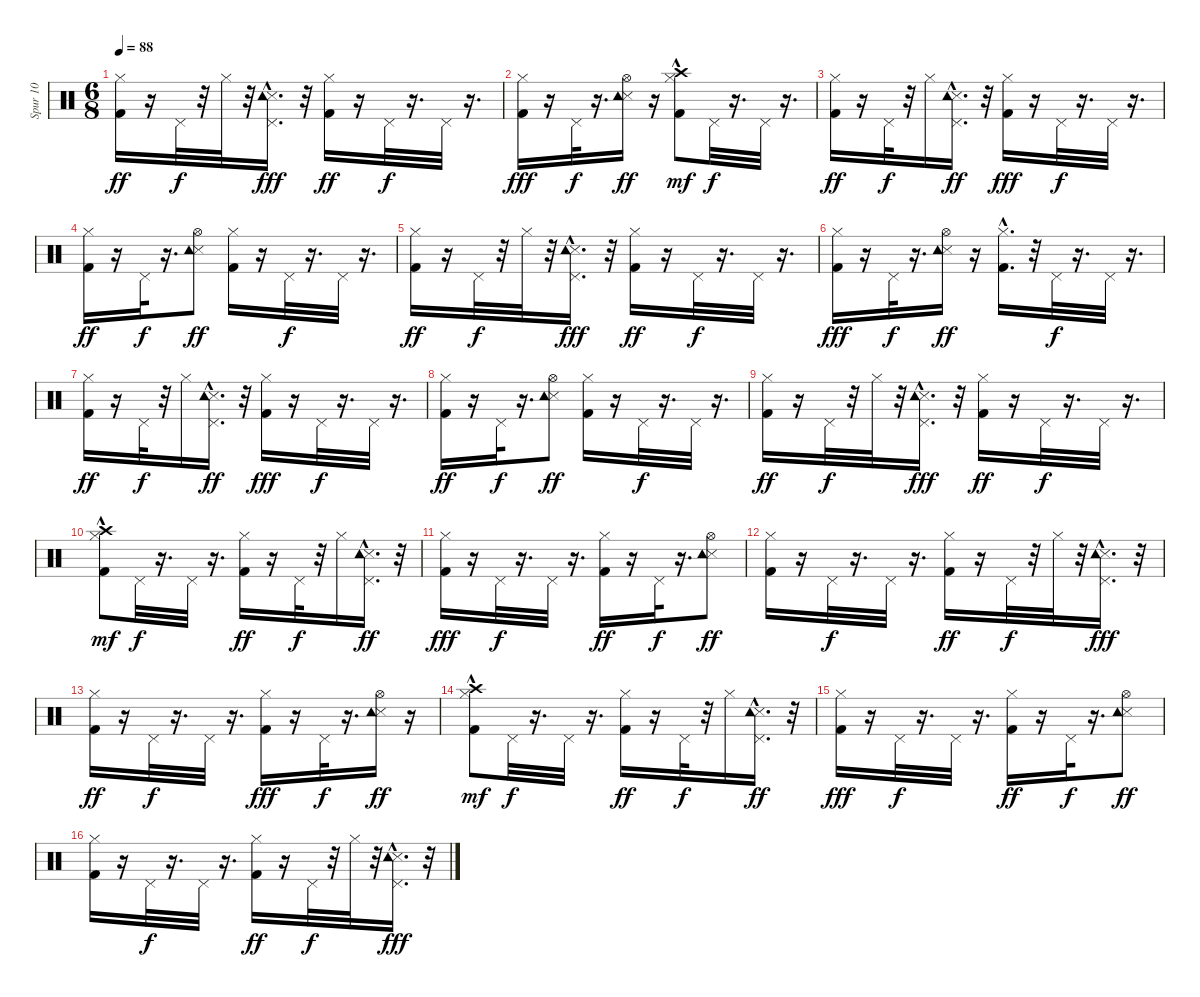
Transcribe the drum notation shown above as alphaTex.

\track ("Spur 10" "Spur 10") {instrument percussion}
\staff {score}
\articulation defaults
\ts (6 8)
\tempo 88
\clef neutral
\ks c
("Kick (hit) 2" "Hi-Hat (closed)").16{dy ff} r.16 "Pedal Hi-Hat (hit)".32{dy f} r.32 "Hi-Hat (closed)".32 r.32 ("Pedal Hi-Hat (hit)" "Snare (side stick) 3" "Tambourine (hit)"{hac}).16{d dy fff} r.32 ("Kick (hit) 2" "Hi-Hat (closed)").16{dy ff} r.16 "Pedal Hi-Hat (hit)".32{dy f} r.16{d} "Pedal Hi-Hat (hit)".32 r.16{d} |
("Kick (hit) 2" "Hi-Hat (closed)").16{dy fff} r.16 "Pedal Hi-Hat (hit)".32{dy f} r.16{d} ("Snare (side stick) 3" "Hi-Hat (open)" "Tambourine (hit)").16{dy ff} r.16 ("Kick (hit) 2"{hac} "Hi-Hat (closed)"{hac} "Crash high (hit)").8{dy mf} "Pedal Hi-Hat (hit)".32{dy f} r.16{d} "Pedal Hi-Hat (hit)".32 r.16{d} |
("Kick (hit) 2" "Hi-Hat (closed)").16{dy ff} r.16 "Pedal Hi-Hat (hit)".32{dy f} r.32 "Hi-Hat (closed)".16 ("Snare (side stick) 3" "Pedal Hi-Hat (hit)" "Tambourine (hit)"{hac}).16{d dy ff} r.32 ("Kick (hit) 2" "Hi-Hat (closed)").16{dy fff} r.16 "Pedal Hi-Hat (hit)".32{dy f} r.16{d} "Pedal Hi-Hat (hit)".32 r.16{d} |
("Kick (hit) 2" "Hi-Hat (closed)").16{dy ff} r.16 "Pedal Hi-Hat (hit)".32{dy f} r.16{d} ("Snare (side stick) 3" "Hi-Hat (open)" "Tambourine (hit)").8{dy ff} ("Kick (hit) 2" "Hi-Hat (closed)").16 r.16 "Pedal Hi-Hat (hit)".32{dy f} r.16{d} "Pedal Hi-Hat (hit)".32 r.16{d} |
("Kick (hit) 2" "Hi-Hat (closed)").16{dy ff} r.16 "Pedal Hi-Hat (hit)".32{dy f} r.32 "Hi-Hat (closed)".32 r.32 ("Pedal Hi-Hat (hit)" "Snare (side stick) 3" "Tambourine (hit)"{hac}).16{d dy fff} r.32 ("Kick (hit) 2" "Hi-Hat (closed)").16{dy ff} r.16 "Pedal Hi-Hat (hit)".32{dy f} r.16{d} "Pedal Hi-Hat (hit)".32 r.16{d} |
("Kick (hit) 2" "Hi-Hat (closed)").16{dy fff} r.16 "Pedal Hi-Hat (hit)".32{dy f} r.16{d} ("Snare (side stick) 3" "Hi-Hat (open)" "Tambourine (hit)").16{dy ff} r.16 ("Kick (hit) 2"{hac} "Hi-Hat (closed)"{hac}).16{d} r.32 "Pedal Hi-Hat (hit)".32{dy f} r.16{d} "Pedal Hi-Hat (hit)".32 r.16{d} |
("Kick (hit) 2" "Hi-Hat (closed)").16{dy ff} r.16 "Pedal Hi-Hat (hit)".32{dy f} r.32 "Hi-Hat (closed)".16 ("Snare (side stick) 3" "Pedal Hi-Hat (hit)" "Tambourine (hit)"{hac}).16{d dy ff} r.32 ("Kick (hit) 2" "Hi-Hat (closed)").16{dy fff} r.16 "Pedal Hi-Hat (hit)".32{dy f} r.16{d} "Pedal Hi-Hat (hit)".32 r.16{d} |
("Kick (hit) 2" "Hi-Hat (closed)").16{dy ff} r.16 "Pedal Hi-Hat (hit)".32{dy f} r.16{d} ("Snare (side stick) 3" "Hi-Hat (open)" "Tambourine (hit)").8{dy ff} ("Kick (hit) 2" "Hi-Hat (closed)").16 r.16 "Pedal Hi-Hat (hit)".32{dy f} r.16{d} "Pedal Hi-Hat (hit)".32 r.16{d} |
("Kick (hit) 2" "Hi-Hat (closed)").16{dy ff} r.16 "Pedal Hi-Hat (hit)".32{dy f} r.32 "Hi-Hat (closed)".32 r.32 ("Pedal Hi-Hat (hit)" "Snare (side stick) 3" "Tambourine (hit)"{hac}).16{d dy fff} r.32 ("Kick (hit) 2" "Hi-Hat (closed)").16{dy ff} r.16 "Pedal Hi-Hat (hit)".32{dy f} r.16{d} "Pedal Hi-Hat (hit)".32 r.16{d} |
("Kick (hit) 2"{hac} "Hi-Hat (closed)"{hac} "Crash high (hit)").8{dy mf} "Pedal Hi-Hat (hit)".32{dy f} r.16{d} "Pedal Hi-Hat (hit)".32 r.16{d} ("Kick (hit) 2" "Hi-Hat (closed)").16{dy ff} r.16 "Pedal Hi-Hat (hit)".32{dy f} r.32 "Hi-Hat (closed)".16 ("Snare (side stick) 3" "Pedal Hi-Hat (hit)" "Tambourine (hit)"{hac}).16{d dy ff} r.32 |
("Kick (hit) 2" "Hi-Hat (closed)").16{dy fff} r.16 "Pedal Hi-Hat (hit)".32{dy f} r.16{d} "Pedal Hi-Hat (hit)".32 r.16{d} ("Kick (hit) 2" "Hi-Hat (closed)").16{dy ff} r.16 "Pedal Hi-Hat (hit)".32{dy f} r.16{d} ("Snare (side stick) 3" "Hi-Hat (open)" "Tambourine (hit)").8{dy ff} |
("Kick (hit) 2" "Hi-Hat (closed)").16 r.16 "Pedal Hi-Hat (hit)".32{dy f} r.16{d} "Pedal Hi-Hat (hit)".32 r.16{d} ("Kick (hit) 2" "Hi-Hat (closed)").16{dy ff} r.16 "Pedal Hi-Hat (hit)".32{dy f} r.32 "Hi-Hat (closed)".32 r.32 ("Pedal Hi-Hat (hit)" "Snare (side stick) 3" "Tambourine (hit)"{hac}).16{d dy fff} r.32 |
("Kick (hit) 2" "Hi-Hat (closed)").16{dy ff} r.16 "Pedal Hi-Hat (hit)".32{dy f} r.16{d} "Pedal Hi-Hat (hit)".32 r.16{d} ("Kick (hit) 2" "Hi-Hat (closed)").16{dy fff} r.16 "Pedal Hi-Hat (hit)".32{dy f} r.16{d} ("Snare (side stick) 3" "Hi-Hat (open)" "Tambourine (hit)").16{dy ff} r.16 |
("Kick (hit) 2"{hac} "Hi-Hat (closed)"{hac} "Crash high (hit)").8{dy mf} "Pedal Hi-Hat (hit)".32{dy f} r.16{d} "Pedal Hi-Hat (hit)".32 r.16{d} ("Kick (hit) 2" "Hi-Hat (closed)").16{dy ff} r.16 "Pedal Hi-Hat (hit)".32{dy f} r.32 "Hi-Hat (closed)".16 ("Snare (side stick) 3" "Pedal Hi-Hat (hit)" "Tambourine (hit)"{hac}).16{d dy ff} r.32 |
("Kick (hit) 2" "Hi-Hat (closed)").16{dy fff} r.16 "Pedal Hi-Hat (hit)".32{dy f} r.16{d} "Pedal Hi-Hat (hit)".32 r.16{d} ("Kick (hit) 2" "Hi-Hat (closed)").16{dy ff} r.16 "Pedal Hi-Hat (hit)".32{dy f} r.16{d} ("Snare (side stick) 3" "Hi-Hat (open)" "Tambourine (hit)").8{dy ff} |
("Kick (hit) 2" "Hi-Hat (closed)").16 r.16 "Pedal Hi-Hat (hit)".32{dy f} r.16{d} "Pedal Hi-Hat (hit)".32 r.16{d} ("Kick (hit) 2" "Hi-Hat (closed)").16{dy ff} r.16 "Pedal Hi-Hat (hit)".32{dy f} r.32 "Hi-Hat (closed)".32 r.32 ("Pedal Hi-Hat (hit)" "Snare (side stick) 3" "Tambourine (hit)"{hac}).16{d dy fff} r.32
